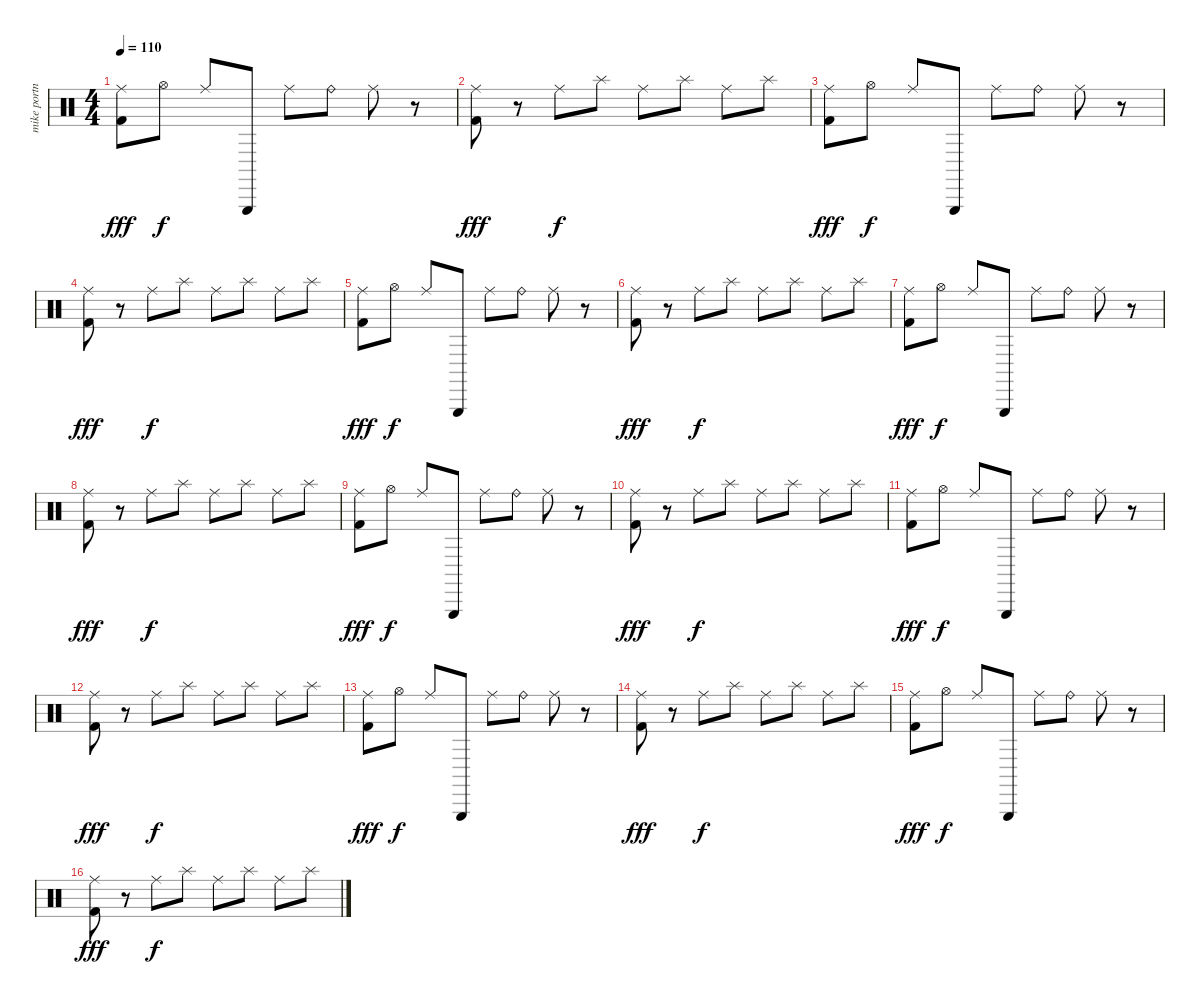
\track ("mike portnoy" "mike portn") {instrument percussion}
\staff {score}
\articulation defaults
\ts (4 4)
\tempo 110
\clef neutral
\ks c
("Ride (middle)" "Kick (hit) 2").8{dy fff} "Hi-Hat (open)".8{dy f} "Ride (middle)".8 "Triangle (hit)".8 "Ride (middle)".8 "Ride (bell)".8 "Ride (middle)".8 r.8 |
("Ride (middle)" "Kick (hit) 2").8{dy fff} r.8 "Ride (middle)".8{dy f} "Splash (hit)".8 "Ride (middle)".8 "Splash (hit)".8 "Ride (middle)".8 "Splash (hit)".8 |
("Ride (middle)" "Kick (hit) 2").8{dy fff} "Hi-Hat (open)".8{dy f} "Ride (middle)".8 "Triangle (hit)".8 "Ride (middle)".8 "Ride (bell)".8 "Ride (middle)".8 r.8 |
("Ride (middle)" "Kick (hit) 2").8{dy fff} r.8 "Ride (middle)".8{dy f} "Splash (hit)".8 "Ride (middle)".8 "Splash (hit)".8 "Ride (middle)".8 "Splash (hit)".8 |
("Ride (middle)" "Kick (hit) 2").8{dy fff} "Hi-Hat (open)".8{dy f} "Ride (middle)".8 "Triangle (hit)".8 "Ride (middle)".8 "Ride (bell)".8 "Ride (middle)".8 r.8 |
("Ride (middle)" "Kick (hit) 2").8{dy fff} r.8 "Ride (middle)".8{dy f} "Splash (hit)".8 "Ride (middle)".8 "Splash (hit)".8 "Ride (middle)".8 "Splash (hit)".8 |
("Ride (middle)" "Kick (hit) 2").8{dy fff} "Hi-Hat (open)".8{dy f} "Ride (middle)".8 "Triangle (hit)".8 "Ride (middle)".8 "Ride (bell)".8 "Ride (middle)".8 r.8 |
("Ride (middle)" "Kick (hit) 2").8{dy fff} r.8 "Ride (middle)".8{dy f} "Splash (hit)".8 "Ride (middle)".8 "Splash (hit)".8 "Ride (middle)".8 "Splash (hit)".8 |
("Ride (middle)" "Kick (hit) 2").8{dy fff} "Hi-Hat (open)".8{dy f} "Ride (middle)".8 "Triangle (hit)".8 "Ride (middle)".8 "Ride (bell)".8 "Ride (middle)".8 r.8 |
("Ride (middle)" "Kick (hit) 2").8{dy fff} r.8 "Ride (middle)".8{dy f} "Splash (hit)".8 "Ride (middle)".8 "Splash (hit)".8 "Ride (middle)".8 "Splash (hit)".8 |
("Ride (middle)" "Kick (hit) 2").8{dy fff} "Hi-Hat (open)".8{dy f} "Ride (middle)".8 "Triangle (hit)".8 "Ride (middle)".8 "Ride (bell)".8 "Ride (middle)".8 r.8 |
("Ride (middle)" "Kick (hit) 2").8{dy fff} r.8 "Ride (middle)".8{dy f} "Splash (hit)".8 "Ride (middle)".8 "Splash (hit)".8 "Ride (middle)".8 "Splash (hit)".8 |
("Ride (middle)" "Kick (hit) 2").8{dy fff} "Hi-Hat (open)".8{dy f} "Ride (middle)".8 "Triangle (hit)".8 "Ride (middle)".8 "Ride (bell)".8 "Ride (middle)".8 r.8 |
("Ride (middle)" "Kick (hit) 2").8{dy fff} r.8 "Ride (middle)".8{dy f} "Splash (hit)".8 "Ride (middle)".8 "Splash (hit)".8 "Ride (middle)".8 "Splash (hit)".8 |
("Ride (middle)" "Kick (hit) 2").8{dy fff} "Hi-Hat (open)".8{dy f} "Ride (middle)".8 "Triangle (hit)".8 "Ride (middle)".8 "Ride (bell)".8 "Ride (middle)".8 r.8 |
("Ride (middle)" "Kick (hit) 2").8{dy fff} r.8 "Ride (middle)".8{dy f} "Splash (hit)".8 "Ride (middle)".8 "Splash (hit)".8 "Ride (middle)".8 "Splash (hit)".8
